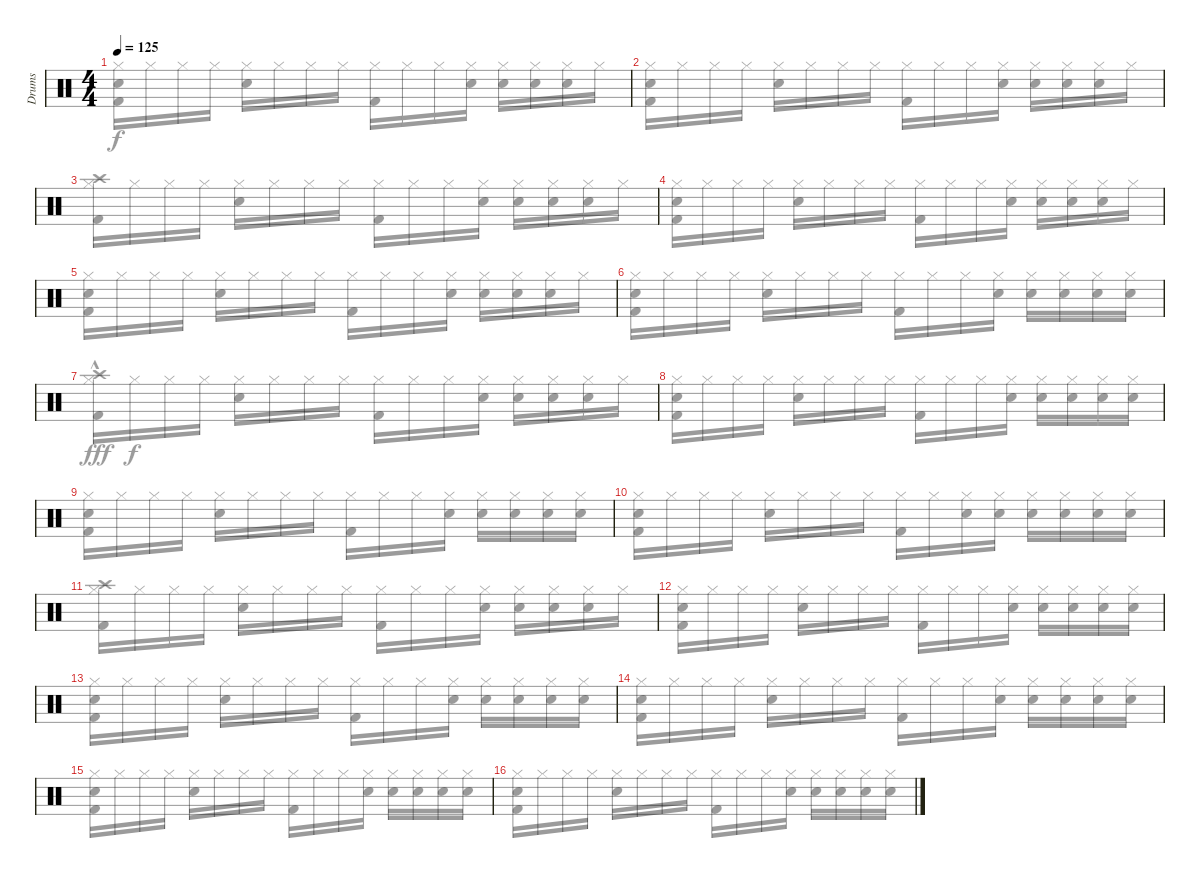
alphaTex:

\track ("Drums" "Drums") {instrument percussion}
\staff {score}
\articulation defaults
\voice
\ts (4 4)
\tempo 125
\clef neutral
\ks c
|
|
|
|
|
|
|
|
|
|
|
|
|
|
|
\voice
\clef neutral
\ks c
("Hi-Hat (closed)" "Kick (hit) 2" "Snare (hit)").16{dy f} "Hi-Hat (closed)".16 "Hi-Hat (closed)".16 "Hi-Hat (closed)".16 ("Hi-Hat (closed)" "Electric Snare (hit)").16 "Hi-Hat (closed)".16 "Hi-Hat (closed)".16 "Hi-Hat (closed)".16 ("Hi-Hat (closed)" "Kick (hit) 2").16 "Hi-Hat (closed)".16 "Hi-Hat (closed)".16 ("Hi-Hat (closed)" "Electric Snare (hit)").16 ("Hi-Hat (closed)" "Snare (hit)").16 ("Hi-Hat (closed)" "Electric Snare (hit)").16 ("Hi-Hat (closed)" "Snare (hit)").16 "Hi-Hat (closed)".16 |
("Hi-Hat (closed)" "Kick (hit) 2" "Snare (hit)").16 "Hi-Hat (closed)".16 "Hi-Hat (closed)".16 "Hi-Hat (closed)".16 ("Hi-Hat (closed)" "Electric Snare (hit)").16 "Hi-Hat (closed)".16 "Hi-Hat (closed)".16 "Hi-Hat (closed)".16 ("Hi-Hat (closed)" "Kick (hit) 2").16 "Hi-Hat (closed)".16 "Hi-Hat (closed)".16 ("Hi-Hat (closed)" "Electric Snare (hit)").16 ("Hi-Hat (closed)" "Snare (hit)").16 ("Hi-Hat (closed)" "Electric Snare (hit)").16 ("Hi-Hat (closed)" "Snare (hit)").16 "Hi-Hat (closed)".16 |
("Hi-Hat (closed)" "Kick (hit) 2" "Crash high (hit)").16 "Hi-Hat (closed)".16 "Hi-Hat (closed)".16 "Hi-Hat (closed)".16 ("Hi-Hat (closed)" "Electric Snare (hit)").16 "Hi-Hat (closed)".16 "Hi-Hat (closed)".16 "Hi-Hat (closed)".16 ("Hi-Hat (closed)" "Kick (hit) 2").16 "Hi-Hat (closed)".16 "Hi-Hat (closed)".16 ("Hi-Hat (closed)" "Electric Snare (hit)").16 ("Hi-Hat (closed)" "Snare (hit)").16 ("Hi-Hat (closed)" "Electric Snare (hit)").16 ("Hi-Hat (closed)" "Snare (hit)").16 "Hi-Hat (closed)".16 |
("Hi-Hat (closed)" "Kick (hit) 2" "Snare (hit)").16 "Hi-Hat (closed)".16 "Hi-Hat (closed)".16 "Hi-Hat (closed)".16 ("Hi-Hat (closed)" "Electric Snare (hit)").16 "Hi-Hat (closed)".16 "Hi-Hat (closed)".16 "Hi-Hat (closed)".16 ("Hi-Hat (closed)" "Kick (hit) 2").16 "Hi-Hat (closed)".16 "Hi-Hat (closed)".16 ("Hi-Hat (closed)" "Electric Snare (hit)").16 ("Hi-Hat (closed)" "Snare (hit)").16 ("Hi-Hat (closed)" "Electric Snare (hit)").16 ("Hi-Hat (closed)" "Snare (hit)").16 "Hi-Hat (closed)".16 |
("Hi-Hat (closed)" "Kick (hit) 2" "Snare (hit)").16 "Hi-Hat (closed)".16 "Hi-Hat (closed)".16 "Hi-Hat (closed)".16 ("Hi-Hat (closed)" "Electric Snare (hit)").16 "Hi-Hat (closed)".16 "Hi-Hat (closed)".16 "Hi-Hat (closed)".16 ("Hi-Hat (closed)" "Kick (hit) 2").16 "Hi-Hat (closed)".16 "Hi-Hat (closed)".16 ("Hi-Hat (closed)" "Electric Snare (hit)").16 ("Hi-Hat (closed)" "Snare (hit)").16 ("Hi-Hat (closed)" "Electric Snare (hit)").16 ("Hi-Hat (closed)" "Snare (hit)").16 "Hi-Hat (closed)".16 |
("Hi-Hat (closed)" "Kick (hit) 2" "Snare (hit)").16 "Hi-Hat (closed)".16 "Hi-Hat (closed)".16 "Hi-Hat (closed)".16 ("Hi-Hat (closed)" "Electric Snare (hit)").16 "Hi-Hat (closed)".16 "Hi-Hat (closed)".16 "Hi-Hat (closed)".16 ("Hi-Hat (closed)" "Kick (hit) 2").16 "Hi-Hat (closed)".16 "Hi-Hat (closed)".16 ("Hi-Hat (closed)" "Electric Snare (hit)").16 ("Hi-Hat (closed)" "Snare (hit)").16 ("Hi-Hat (closed)" "Electric Snare (hit)").16 ("Hi-Hat (closed)" "Snare (hit)").16 ("Hi-Hat (closed)" "Electric Snare (hit)").16 |
("Hi-Hat (closed)" "Kick (hit) 2" "Crash high (hit)"{hac}).16{dy fff} "Hi-Hat (closed)".16{dy f} "Hi-Hat (closed)".16 "Hi-Hat (closed)".16 ("Hi-Hat (closed)" "Electric Snare (hit)").16 "Hi-Hat (closed)".16 "Hi-Hat (closed)".16 "Hi-Hat (closed)".16 ("Hi-Hat (closed)" "Kick (hit) 2").16 "Hi-Hat (closed)".16 "Hi-Hat (closed)".16 ("Hi-Hat (closed)" "Electric Snare (hit)").16 ("Hi-Hat (closed)" "Snare (hit)").16 ("Hi-Hat (closed)" "Electric Snare (hit)").16 ("Hi-Hat (closed)" "Snare (hit)").16 "Hi-Hat (closed)".16 |
("Hi-Hat (closed)" "Kick (hit) 2" "Snare (hit)").16 "Hi-Hat (closed)".16 "Hi-Hat (closed)".16 "Hi-Hat (closed)".16 ("Hi-Hat (closed)" "Electric Snare (hit)").16 "Hi-Hat (closed)".16 "Hi-Hat (closed)".16 "Hi-Hat (closed)".16 ("Hi-Hat (closed)" "Kick (hit) 2").16 "Hi-Hat (closed)".16 "Hi-Hat (closed)".16 ("Hi-Hat (closed)" "Electric Snare (hit)").16 ("Hi-Hat (closed)" "Snare (hit)").16 ("Hi-Hat (closed)" "Electric Snare (hit)").16 ("Hi-Hat (closed)" "Snare (hit)").16 ("Hi-Hat (closed)" "Snare (hit)").16 |
("Hi-Hat (closed)" "Kick (hit) 2" "Snare (hit)").16 "Hi-Hat (closed)".16 "Hi-Hat (closed)".16 "Hi-Hat (closed)".16 ("Hi-Hat (closed)" "Electric Snare (hit)").16 "Hi-Hat (closed)".16 "Hi-Hat (closed)".16 "Hi-Hat (closed)".16 ("Hi-Hat (closed)" "Kick (hit) 2").16 "Hi-Hat (closed)".16 "Hi-Hat (closed)".16 ("Hi-Hat (closed)" "Electric Snare (hit)").16 ("Hi-Hat (closed)" "Snare (hit)").16 ("Hi-Hat (closed)" "Electric Snare (hit)").16 ("Hi-Hat (closed)" "Snare (hit)").16 ("Hi-Hat (closed)" "Snare (hit)").16 |
("Hi-Hat (closed)" "Kick (hit) 2" "Snare (hit)").16 "Hi-Hat (closed)".16 "Hi-Hat (closed)".16 "Hi-Hat (closed)".16 ("Hi-Hat (closed)" "Electric Snare (hit)").16 "Hi-Hat (closed)".16 "Hi-Hat (closed)".16 "Hi-Hat (closed)".16 ("Hi-Hat (closed)" "Kick (hit) 2").16 "Hi-Hat (closed)".16 ("Hi-Hat (closed)" "Snare (hit)").16 ("Hi-Hat (closed)" "Electric Snare (hit)").16 ("Hi-Hat (closed)" "Electric Snare (hit)").16 ("Hi-Hat (closed)" "Electric Snare (hit)").16 ("Hi-Hat (closed)" "Electric Snare (hit)").16 ("Hi-Hat (closed)" "Electric Snare (hit)").16 |
("Hi-Hat (closed)" "Kick (hit) 2" "Crash high (hit)").16 "Hi-Hat (closed)".16 "Hi-Hat (closed)".16 "Hi-Hat (closed)".16 ("Hi-Hat (closed)" "Electric Snare (hit)").16 "Hi-Hat (closed)".16 "Hi-Hat (closed)".16 "Hi-Hat (closed)".16 ("Hi-Hat (closed)" "Kick (hit) 2").16 "Hi-Hat (closed)".16 "Hi-Hat (closed)".16 ("Hi-Hat (closed)" "Electric Snare (hit)").16 ("Hi-Hat (closed)" "Snare (hit)").16 ("Hi-Hat (closed)" "Electric Snare (hit)").16 ("Hi-Hat (closed)" "Snare (hit)").16 "Hi-Hat (closed)".16 |
("Hi-Hat (closed)" "Kick (hit) 2" "Snare (hit)").16 "Hi-Hat (closed)".16 "Hi-Hat (closed)".16 "Hi-Hat (closed)".16 ("Hi-Hat (closed)" "Electric Snare (hit)").16 "Hi-Hat (closed)".16 "Hi-Hat (closed)".16 "Hi-Hat (closed)".16 ("Hi-Hat (closed)" "Kick (hit) 2").16 "Hi-Hat (closed)".16 "Hi-Hat (closed)".16 ("Hi-Hat (closed)" "Electric Snare (hit)").16 ("Hi-Hat (closed)" "Snare (hit)").16 ("Hi-Hat (closed)" "Electric Snare (hit)").16 ("Hi-Hat (closed)" "Snare (hit)").16 ("Hi-Hat (closed)" "Snare (hit)").16 |
("Hi-Hat (closed)" "Kick (hit) 2" "Snare (hit)").16 "Hi-Hat (closed)".16 "Hi-Hat (closed)".16 "Hi-Hat (closed)".16 ("Hi-Hat (closed)" "Electric Snare (hit)").16 "Hi-Hat (closed)".16 "Hi-Hat (closed)".16 "Hi-Hat (closed)".16 ("Hi-Hat (closed)" "Kick (hit) 2").16 "Hi-Hat (closed)".16 "Hi-Hat (closed)".16 ("Hi-Hat (closed)" "Electric Snare (hit)").16 ("Hi-Hat (closed)" "Snare (hit)").16 ("Hi-Hat (closed)" "Electric Snare (hit)").16 ("Hi-Hat (closed)" "Snare (hit)").16 ("Hi-Hat (closed)" "Snare (hit)").16 |
("Hi-Hat (closed)" "Kick (hit) 2" "Snare (hit)").16 "Hi-Hat (closed)".16 "Hi-Hat (closed)".16 "Hi-Hat (closed)".16 ("Hi-Hat (closed)" "Electric Snare (hit)").16 "Hi-Hat (closed)".16 "Hi-Hat (closed)".16 "Hi-Hat (closed)".16 ("Hi-Hat (closed)" "Kick (hit) 2").16 "Hi-Hat (closed)".16 "Hi-Hat (closed)".16 ("Hi-Hat (closed)" "Electric Snare (hit)").16 ("Hi-Hat (closed)" "Snare (hit)").16 ("Hi-Hat (closed)" "Electric Snare (hit)").16 ("Hi-Hat (closed)" "Snare (hit)").16 ("Hi-Hat (closed)" "Snare (hit)").16 |
("Hi-Hat (closed)" "Kick (hit) 2" "Snare (hit)").16 "Hi-Hat (closed)".16 "Hi-Hat (closed)".16 "Hi-Hat (closed)".16 ("Hi-Hat (closed)" "Electric Snare (hit)").16 "Hi-Hat (closed)".16 "Hi-Hat (closed)".16 "Hi-Hat (closed)".16 ("Hi-Hat (closed)" "Kick (hit) 2").16 "Hi-Hat (closed)".16 "Hi-Hat (closed)".16 ("Hi-Hat (closed)" "Electric Snare (hit)").16 ("Hi-Hat (closed)" "Snare (hit)").16 ("Hi-Hat (closed)" "Electric Snare (hit)").16 ("Hi-Hat (closed)" "Snare (hit)").16 ("Hi-Hat (closed)" "Snare (hit)").16 |
("Hi-Hat (closed)" "Kick (hit) 2" "Snare (hit)").16 "Hi-Hat (closed)".16 "Hi-Hat (closed)".16 "Hi-Hat (closed)".16 ("Hi-Hat (closed)" "Electric Snare (hit)").16 "Hi-Hat (closed)".16 "Hi-Hat (closed)".16 "Hi-Hat (closed)".16 ("Hi-Hat (closed)" "Kick (hit) 2").16 "Hi-Hat (closed)".16 "Hi-Hat (closed)".16 ("Hi-Hat (closed)" "Electric Snare (hit)").16 ("Hi-Hat (closed)" "Snare (hit)").16 ("Hi-Hat (closed)" "Electric Snare (hit)").16 ("Hi-Hat (closed)" "Snare (hit)").16 ("Hi-Hat (closed)" "Snare (hit)").16
